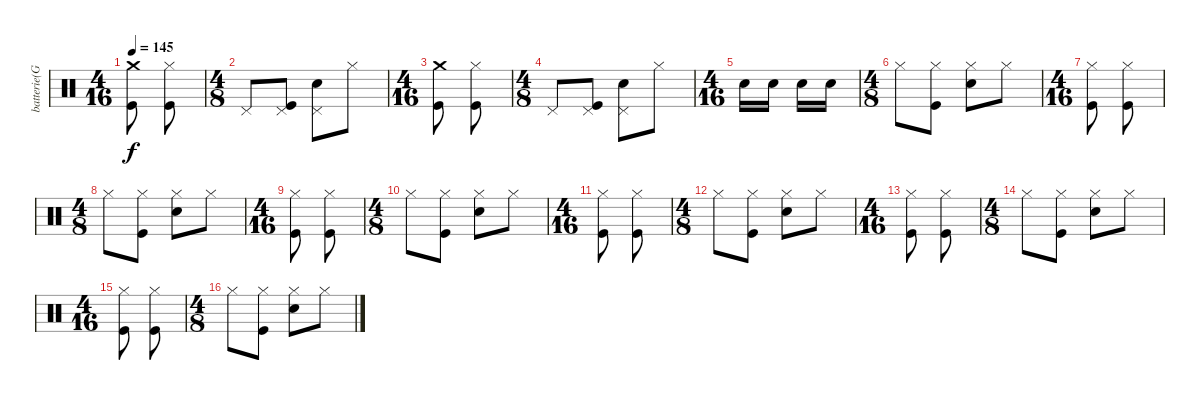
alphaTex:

\track ("batterie(Granberg)" "batterie(G") {instrument percussion}
\staff {score}
\articulation defaults
\ts (4 16)
\tempo 145
\clef neutral
\ks c
("Crash medium (hit)" "Kick (hit)").8{dy f} ("Hi-Hat (closed)" "Kick (hit)").8 |
\ts (4 8)
"Pedal Hi-Hat (hit)".8 ("Pedal Hi-Hat (hit)" "Kick (hit)").8 ("Pedal Hi-Hat (hit)" "Snare (hit) 2").8 "Hi-Hat (closed)".8 |
\ts (4 16)
("Crash medium (hit)" "Kick (hit)").8 ("Hi-Hat (closed)" "Kick (hit)").8 |
\ts (4 8)
"Pedal Hi-Hat (hit)".8 ("Pedal Hi-Hat (hit)" "Kick (hit)").8 ("Pedal Hi-Hat (hit)" "Snare (hit) 2").8 "Hi-Hat (closed)".8 |
\ts (4 16)
"Snare (hit) 2".16 "Snare (hit) 2".16 "Snare (hit) 2".16 "Snare (hit) 2".16 |
\ts (4 8)
"Hi-Hat (closed)".8 ("Hi-Hat (closed)" "Kick (hit)").8 ("Hi-Hat (closed)" "Snare (hit) 2").8 "Hi-Hat (closed)".8 |
\ts (4 16)
("Hi-Hat (closed)" "Kick (hit)").8 ("Hi-Hat (closed)" "Kick (hit)").8 |
\ts (4 8)
"Hi-Hat (closed)".8 ("Hi-Hat (closed)" "Kick (hit)").8 ("Hi-Hat (closed)" "Snare (hit) 2").8 "Hi-Hat (closed)".8 |
\ts (4 16)
("Hi-Hat (closed)" "Kick (hit)").8 ("Hi-Hat (closed)" "Kick (hit)").8 |
\ts (4 8)
"Hi-Hat (closed)".8 ("Hi-Hat (closed)" "Kick (hit)").8 ("Hi-Hat (closed)" "Snare (hit) 2").8 "Hi-Hat (closed)".8 |
\ts (4 16)
("Hi-Hat (closed)" "Kick (hit)").8 ("Hi-Hat (closed)" "Kick (hit)").8 |
\ts (4 8)
"Hi-Hat (closed)".8 ("Hi-Hat (closed)" "Kick (hit)").8 ("Hi-Hat (closed)" "Snare (hit) 2").8 "Hi-Hat (closed)".8 |
\ts (4 16)
("Hi-Hat (closed)" "Kick (hit)").8 ("Hi-Hat (closed)" "Kick (hit)").8 |
\ts (4 8)
"Hi-Hat (closed)".8 ("Hi-Hat (closed)" "Kick (hit)").8 ("Hi-Hat (closed)" "Snare (hit) 2").8 "Hi-Hat (closed)".8 |
\ts (4 16)
("Hi-Hat (closed)" "Kick (hit)").8 ("Hi-Hat (closed)" "Kick (hit)").8 |
\ts (4 8)
"Hi-Hat (closed)".8 ("Hi-Hat (closed)" "Kick (hit)").8 ("Hi-Hat (closed)" "Snare (hit) 2").8 "Hi-Hat (closed)".8
